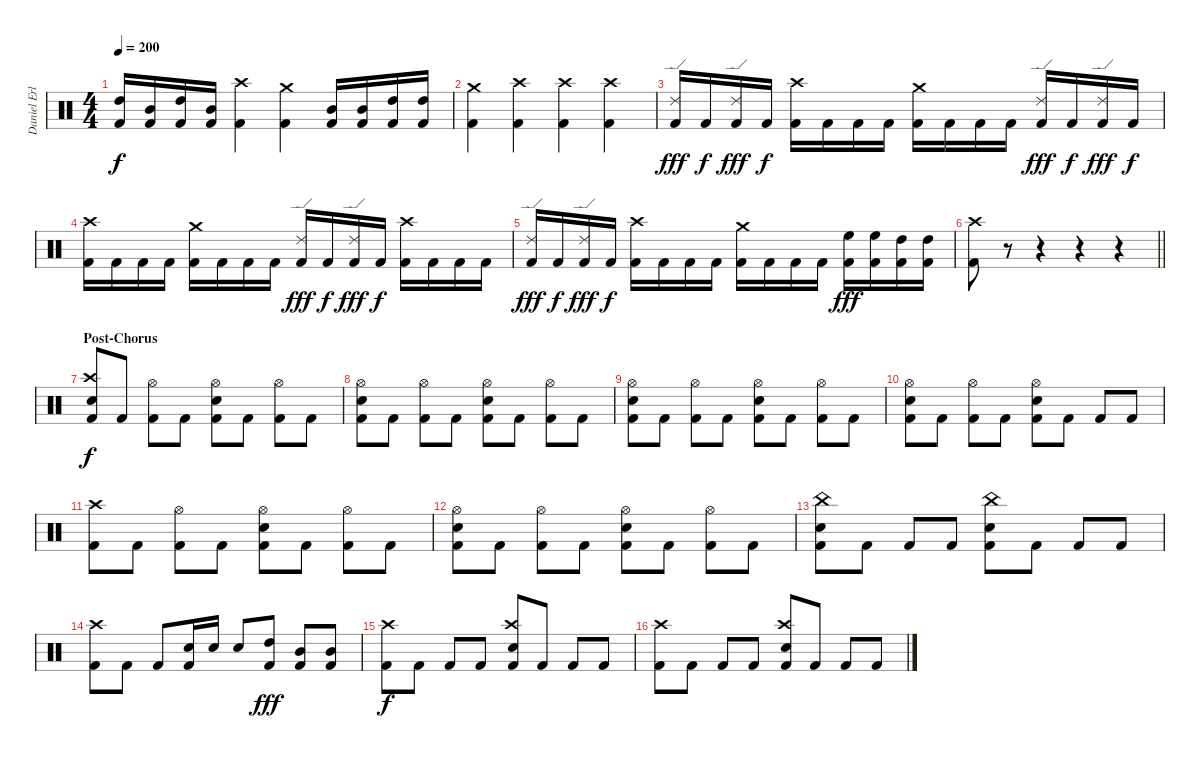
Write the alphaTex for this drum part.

\track ("Daniel Erlandsson" "Daniel Erl") {instrument percussion}
\staff {score}
\articulation defaults
\ts (4 4)
\tempo 200
\clef neutral
\ks c
("Kick (hit) 2" "High Tom (hit)").16{dy f} ("Kick (hit) 2" "Mid Tom (hit)").16 ("Kick (hit) 2" "High Tom (hit)").16 ("Kick (hit) 2" "Mid Tom (hit)").16 ("Kick (hit) 2" "Crash high (hit)").4 ("Kick (hit) 2" "Crash medium (hit)").4 ("Kick (hit) 2" "Mid Tom (hit)").16 ("Kick (hit) 2" "Mid Tom (hit)").16 ("Kick (hit) 2" "High Tom (hit)").16 ("Kick (hit) 2" "High Tom (hit)").16 |
("Kick (hit) 2" "Crash medium (hit)").4 ("Kick (hit) 2" "Crash high (hit)").4 ("Kick (hit) 2" "Crash high (hit)").4 ("Kick (hit) 2" "Crash high (hit)").4 |
("Kick (hit) 2" "Ride (edge) 2").16{dy fff} "Kick (hit) 2".16{dy f} ("Kick (hit) 2" "Ride (edge) 2").16{dy fff} "Kick (hit) 2".16{dy f} ("Kick (hit) 2" "Crash high (hit)").16 "Kick (hit) 2".16 "Kick (hit) 2".16 "Kick (hit) 2".16 ("Kick (hit) 2" "Crash medium (hit)").16 "Kick (hit) 2".16 "Kick (hit) 2".16 "Kick (hit) 2".16 ("Kick (hit) 2" "Ride (edge) 2").16{dy fff} "Kick (hit) 2".16{dy f} ("Kick (hit) 2" "Ride (edge) 2").16{dy fff} "Kick (hit) 2".16{dy f} |
("Kick (hit) 2" "Crash high (hit)").16 "Kick (hit) 2".16 "Kick (hit) 2".16 "Kick (hit) 2".16 ("Kick (hit) 2" "Crash medium (hit)").16 "Kick (hit) 2".16 "Kick (hit) 2".16 "Kick (hit) 2".16 ("Kick (hit) 2" "Ride (edge) 2").16{dy fff} "Kick (hit) 2".16{dy f} ("Kick (hit) 2" "Ride (edge) 2").16{dy fff} "Kick (hit) 2".16{dy f} ("Kick (hit) 2" "Crash high (hit)").16 "Kick (hit) 2".16 "Kick (hit) 2".16 "Kick (hit) 2".16 |
("Kick (hit) 2" "Ride (edge) 2").16{dy fff} "Kick (hit) 2".16{dy f} ("Kick (hit) 2" "Ride (edge) 2").16{dy fff} "Kick (hit) 2".16{dy f} ("Kick (hit) 2" "Crash high (hit)").16 "Kick (hit) 2".16 "Kick (hit) 2".16 "Kick (hit) 2".16 ("Kick (hit) 2" "Crash medium (hit)").16 "Kick (hit) 2".16 "Kick (hit) 2".16 "Kick (hit) 2".16 ("Kick (hit) 2" "High Floor Tom (hit)").16{dy fff} ("Kick (hit) 2" "High Floor Tom (hit)").16 ("Kick (hit) 2" "High Tom (hit)").16 ("Kick (hit) 2" "High Tom (hit)").16 |
\barLineRight lightlight
("Kick (hit) 2" "Crash high (hit)").8 r.8 r.4 r.4 r.4 |
\section ("" "Post-Chorus")
("Kick (hit) 2" "Snare (hit) 2" "Crash high (hit)").8{dy f} "Kick (hit) 2".8 ("Kick (hit) 2" "Hi-Hat (open)").8 "Kick (hit) 2".8 ("Kick (hit) 2" "Snare (hit) 2" "Hi-Hat (open)").8 "Kick (hit) 2".8 ("Kick (hit) 2" "Hi-Hat (open)").8 "Kick (hit) 2".8 |
("Kick (hit) 2" "Snare (hit) 2" "Hi-Hat (open)").8 "Kick (hit) 2".8 ("Kick (hit) 2" "Hi-Hat (open)").8 "Kick (hit) 2".8 ("Kick (hit) 2" "Snare (hit) 2" "Hi-Hat (open)").8 "Kick (hit) 2".8 ("Kick (hit) 2" "Hi-Hat (open)").8 "Kick (hit) 2".8 |
("Kick (hit) 2" "Snare (hit) 2" "Hi-Hat (open)").8 "Kick (hit) 2".8 ("Kick (hit) 2" "Hi-Hat (open)").8 "Kick (hit) 2".8 ("Kick (hit) 2" "Snare (hit) 2" "Hi-Hat (open)").8 "Kick (hit) 2".8 ("Kick (hit) 2" "Hi-Hat (open)").8 "Kick (hit) 2".8 |
("Kick (hit) 2" "Snare (hit) 2" "Hi-Hat (open)").8 "Kick (hit) 2".8 ("Kick (hit) 2" "Hi-Hat (open)").8 "Kick (hit) 2".8 ("Kick (hit) 2" "Snare (hit) 2" "Hi-Hat (open)").8 "Kick (hit) 2".8 "Kick (hit) 2".8 "Kick (hit) 2".8 |
("Kick (hit) 2" "Crash high (hit)").8 "Kick (hit) 2".8 ("Kick (hit) 2" "Hi-Hat (open)").8 "Kick (hit) 2".8 ("Kick (hit) 2" "Snare (hit) 2" "Hi-Hat (open)").8 "Kick (hit) 2".8 ("Kick (hit) 2" "Hi-Hat (open)").8 "Kick (hit) 2".8 |
("Kick (hit) 2" "Snare (hit) 2" "Hi-Hat (open)").8 "Kick (hit) 2".8 ("Kick (hit) 2" "Hi-Hat (open)").8 "Kick (hit) 2".8 ("Kick (hit) 2" "Snare (hit) 2" "Hi-Hat (open)").8 "Kick (hit) 2".8 ("Kick (hit) 2" "Hi-Hat (open)").8 "Kick (hit) 2".8 |
("Kick (hit) 2" "Snare (hit) 2" "China (hit)").8 "Kick (hit) 2".8 "Kick (hit) 2".8 "Kick (hit) 2".8 ("Kick (hit) 2" "Snare (hit) 2" "China (hit)").8 "Kick (hit) 2".8 "Kick (hit) 2".8 "Kick (hit) 2".8 |
("Kick (hit) 2" "Crash high (hit)").8 "Kick (hit) 2".8 "Kick (hit) 2".8 ("Kick (hit) 2" "Snare (hit) 2").16 "Snare (hit) 2".16 "Snare (hit) 2".8 ("Kick (hit) 2" "High Tom (hit)").8{dy fff} ("Kick (hit) 2" "Mid Tom (hit)").8 ("Kick (hit) 2" "Mid Tom (hit)").8 |
("Kick (hit) 2" "Crash high (hit)").8{dy f} "Kick (hit) 2".8 "Kick (hit) 2".8 "Kick (hit) 2".8 ("Kick (hit) 2" "Snare (hit) 2" "Crash high (hit)").8 "Kick (hit) 2".8 "Kick (hit) 2".8 "Kick (hit) 2".8 |
("Kick (hit) 2" "Crash high (hit)").8 "Kick (hit) 2".8 "Kick (hit) 2".8 "Kick (hit) 2".8 ("Kick (hit) 2" "Snare (hit) 2" "Crash high (hit)").8 "Kick (hit) 2".8 "Kick (hit) 2".8 "Kick (hit) 2".8
